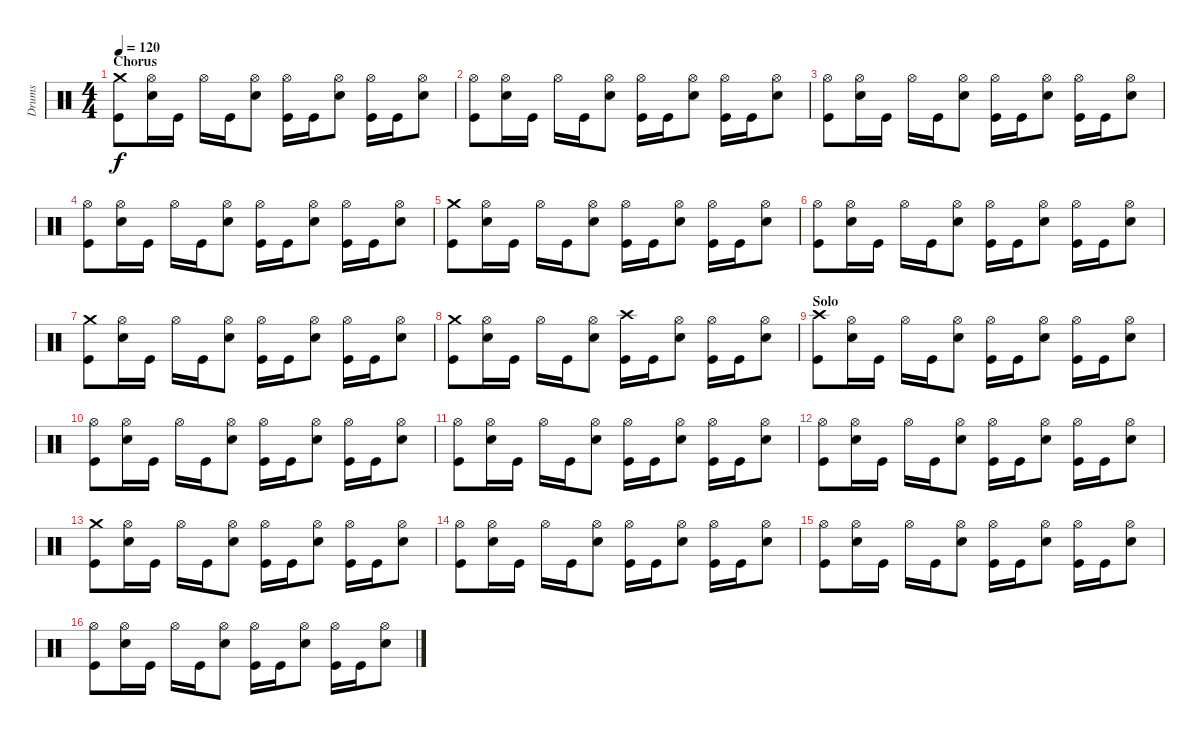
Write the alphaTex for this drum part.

\track ("Drums" "Drums") {instrument percussion}
\staff {score}
\articulation defaults
\ts (4 4)
\section ("" "Chorus")
\tempo 120
\clef neutral
\ks c
("Crash medium (hit)" "Kick (hit)").8{dy f} ("Hi-Hat (open)" "Snare (hit) 2").16 "Kick (hit)".16 "Hi-Hat (open)".16 "Kick (hit)".16 ("Hi-Hat (open)" "Snare (hit) 2").8 ("Hi-Hat (open)" "Kick (hit)").16 "Kick (hit)".16 ("Hi-Hat (open)" "Snare (hit) 2").8 ("Hi-Hat (open)" "Kick (hit)").16 "Kick (hit)".16 ("Hi-Hat (open)" "Snare (hit) 2").8 |
("Hi-Hat (open)" "Kick (hit)").8 ("Hi-Hat (open)" "Snare (hit) 2").16 "Kick (hit)".16 "Hi-Hat (open)".16 "Kick (hit)".16 ("Hi-Hat (open)" "Snare (hit) 2").8 ("Hi-Hat (open)" "Kick (hit)").16 "Kick (hit)".16 ("Hi-Hat (open)" "Snare (hit) 2").8 ("Hi-Hat (open)" "Kick (hit)").16 "Kick (hit)".16 ("Hi-Hat (open)" "Snare (hit) 2").8 |
("Hi-Hat (open)" "Kick (hit)").8 ("Hi-Hat (open)" "Snare (hit) 2").16 "Kick (hit)".16 "Hi-Hat (open)".16 "Kick (hit)".16 ("Hi-Hat (open)" "Snare (hit) 2").8 ("Hi-Hat (open)" "Kick (hit)").16 "Kick (hit)".16 ("Hi-Hat (open)" "Snare (hit) 2").8 ("Hi-Hat (open)" "Kick (hit)").16 "Kick (hit)".16 ("Hi-Hat (open)" "Snare (hit) 2").8 |
("Hi-Hat (open)" "Kick (hit)").8 ("Hi-Hat (open)" "Snare (hit) 2").16 "Kick (hit)".16 "Hi-Hat (open)".16 "Kick (hit)".16 ("Hi-Hat (open)" "Snare (hit) 2").8 ("Hi-Hat (open)" "Kick (hit)").16 "Kick (hit)".16 ("Hi-Hat (open)" "Snare (hit) 2").8 ("Hi-Hat (open)" "Kick (hit)").16 "Kick (hit)".16 ("Hi-Hat (open)" "Snare (hit) 2").8 |
("Crash medium (hit)" "Kick (hit)").8 ("Hi-Hat (open)" "Snare (hit) 2").16 "Kick (hit)".16 "Hi-Hat (open)".16 "Kick (hit)".16 ("Hi-Hat (open)" "Snare (hit) 2").8 ("Hi-Hat (open)" "Kick (hit)").16 "Kick (hit)".16 ("Hi-Hat (open)" "Snare (hit) 2").8 ("Hi-Hat (open)" "Kick (hit)").16 "Kick (hit)".16 ("Hi-Hat (open)" "Snare (hit) 2").8 |
("Hi-Hat (open)" "Kick (hit)").8 ("Hi-Hat (open)" "Snare (hit) 2").16 "Kick (hit)".16 "Hi-Hat (open)".16 "Kick (hit)".16 ("Hi-Hat (open)" "Snare (hit) 2").8 ("Hi-Hat (open)" "Kick (hit)").16 "Kick (hit)".16 ("Hi-Hat (open)" "Snare (hit) 2").8 ("Hi-Hat (open)" "Kick (hit)").16 "Kick (hit)".16 ("Hi-Hat (open)" "Snare (hit) 2").8 |
("Crash medium (hit)" "Kick (hit)").8 ("Hi-Hat (open)" "Snare (hit) 2").16 "Kick (hit)".16 "Hi-Hat (open)".16 "Kick (hit)".16 ("Hi-Hat (open)" "Snare (hit) 2").8 ("Hi-Hat (open)" "Kick (hit)").16 "Kick (hit)".16 ("Hi-Hat (open)" "Snare (hit) 2").8 ("Hi-Hat (open)" "Kick (hit)").16 "Kick (hit)".16 ("Hi-Hat (open)" "Snare (hit) 2").8 |
("Crash medium (hit)" "Kick (hit)").8 ("Hi-Hat (open)" "Snare (hit) 2").16 "Kick (hit)".16 "Hi-Hat (open)".16 "Kick (hit)".16 ("Hi-Hat (open)" "Snare (hit) 2").8 ("Crash high (hit)" "Kick (hit)").16 "Kick (hit)".16 ("Hi-Hat (open)" "Snare (hit) 2").8 ("Hi-Hat (open)" "Kick (hit)").16 "Kick (hit)".16 ("Hi-Hat (open)" "Snare (hit) 2").8 |
\section ("" "Solo")
("Crash high (hit)" "Kick (hit)").8 ("Hi-Hat (open)" "Snare (hit) 2").16 "Kick (hit)".16 "Hi-Hat (open)".16 "Kick (hit)".16 ("Hi-Hat (open)" "Snare (hit) 2").8 ("Hi-Hat (open)" "Kick (hit)").16 "Kick (hit)".16 ("Hi-Hat (open)" "Snare (hit) 2").8 ("Hi-Hat (open)" "Kick (hit)").16 "Kick (hit)".16 ("Hi-Hat (open)" "Snare (hit) 2").8 |
("Hi-Hat (open)" "Kick (hit)").8 ("Hi-Hat (open)" "Snare (hit) 2").16 "Kick (hit)".16 "Hi-Hat (open)".16 "Kick (hit)".16 ("Hi-Hat (open)" "Snare (hit) 2").8 ("Hi-Hat (open)" "Kick (hit)").16 "Kick (hit)".16 ("Hi-Hat (open)" "Snare (hit) 2").8 ("Hi-Hat (open)" "Kick (hit)").16 "Kick (hit)".16 ("Hi-Hat (open)" "Snare (hit) 2").8 |
("Hi-Hat (open)" "Kick (hit)").8 ("Hi-Hat (open)" "Snare (hit) 2").16 "Kick (hit)".16 "Hi-Hat (open)".16 "Kick (hit)".16 ("Hi-Hat (open)" "Snare (hit) 2").8 ("Hi-Hat (open)" "Kick (hit)").16 "Kick (hit)".16 ("Hi-Hat (open)" "Snare (hit) 2").8 ("Hi-Hat (open)" "Kick (hit)").16 "Kick (hit)".16 ("Hi-Hat (open)" "Snare (hit) 2").8 |
("Hi-Hat (open)" "Kick (hit)").8 ("Hi-Hat (open)" "Snare (hit) 2").16 "Kick (hit)".16 "Hi-Hat (open)".16 "Kick (hit)".16 ("Hi-Hat (open)" "Snare (hit) 2").8 ("Hi-Hat (open)" "Kick (hit)").16 "Kick (hit)".16 ("Hi-Hat (open)" "Snare (hit) 2").8 ("Hi-Hat (open)" "Kick (hit)").16 "Kick (hit)".16 ("Hi-Hat (open)" "Snare (hit) 2").8 |
("Crash medium (hit)" "Kick (hit)").8 ("Hi-Hat (open)" "Snare (hit) 2").16 "Kick (hit)".16 "Hi-Hat (open)".16 "Kick (hit)".16 ("Hi-Hat (open)" "Snare (hit) 2").8 ("Hi-Hat (open)" "Kick (hit)").16 "Kick (hit)".16 ("Hi-Hat (open)" "Snare (hit) 2").8 ("Hi-Hat (open)" "Kick (hit)").16 "Kick (hit)".16 ("Hi-Hat (open)" "Snare (hit) 2").8 |
("Hi-Hat (open)" "Kick (hit)").8 ("Hi-Hat (open)" "Snare (hit) 2").16 "Kick (hit)".16 "Hi-Hat (open)".16 "Kick (hit)".16 ("Hi-Hat (open)" "Snare (hit) 2").8 ("Hi-Hat (open)" "Kick (hit)").16 "Kick (hit)".16 ("Hi-Hat (open)" "Snare (hit) 2").8 ("Hi-Hat (open)" "Kick (hit)").16 "Kick (hit)".16 ("Hi-Hat (open)" "Snare (hit) 2").8 |
("Hi-Hat (open)" "Kick (hit)").8 ("Hi-Hat (open)" "Snare (hit) 2").16 "Kick (hit)".16 "Hi-Hat (open)".16 "Kick (hit)".16 ("Hi-Hat (open)" "Snare (hit) 2").8 ("Hi-Hat (open)" "Kick (hit)").16 "Kick (hit)".16 ("Hi-Hat (open)" "Snare (hit) 2").8 ("Hi-Hat (open)" "Kick (hit)").16 "Kick (hit)".16 ("Hi-Hat (open)" "Snare (hit) 2").8 |
("Hi-Hat (open)" "Kick (hit)").8 ("Hi-Hat (open)" "Snare (hit) 2").16 "Kick (hit)".16 "Hi-Hat (open)".16 "Kick (hit)".16 ("Hi-Hat (open)" "Snare (hit) 2").8 ("Hi-Hat (open)" "Kick (hit)").16 "Kick (hit)".16 ("Hi-Hat (open)" "Snare (hit) 2").8 ("Hi-Hat (open)" "Kick (hit)").16 "Kick (hit)".16 ("Hi-Hat (open)" "Snare (hit) 2").8
